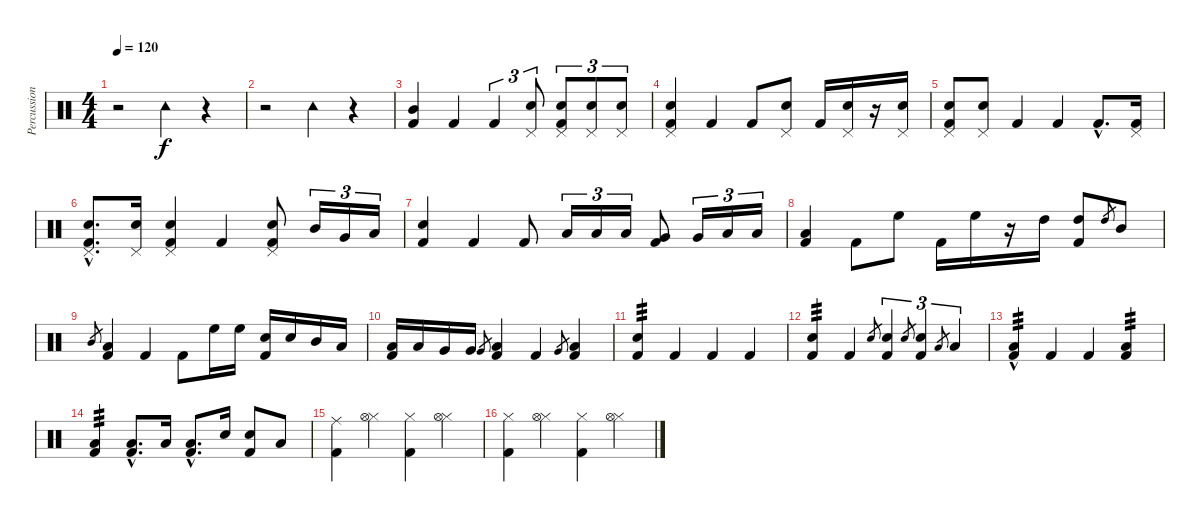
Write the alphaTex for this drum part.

\track ("Percussion" "Percussion") {instrument percussion}
\staff {score}
\articulation defaults
\ts (4 4)
\tempo 120
\clef neutral
\ks c
r.2{dy f} "Tambourine (hit)".4 r.4 |
r.2 "Tambourine (hit)".4 r.4 |
("Kick (hit) 2" "Mid Tom (hit)").4 "Kick (hit) 2".4 "Kick (hit) 2".4{tu (3 2)} ("Snare (hit) 2" "Pedal Hi-Hat (hit)").8{tu (3 2)} ("Kick (hit) 2" "Snare (hit) 2" "Pedal Hi-Hat (hit)").8{tu (3 2)} ("Snare (hit) 2" "Pedal Hi-Hat (hit)").8{tu (3 2)} ("Snare (hit) 2" "Pedal Hi-Hat (hit)").8{tu (3 2)} |
("Kick (hit) 2" "Snare (hit) 2" "Pedal Hi-Hat (hit)").4 "Kick (hit) 2".4 "Kick (hit) 2".8 ("Snare (hit) 2" "Pedal Hi-Hat (hit)").8 "Kick (hit) 2".16 ("Snare (hit) 2" "Pedal Hi-Hat (hit)").16 r.16 ("Snare (hit) 2" "Pedal Hi-Hat (hit)").16 |
("Kick (hit) 2" "Snare (hit) 2" "Pedal Hi-Hat (hit)").8 ("Snare (hit) 2" "Pedal Hi-Hat (hit)").8 "Kick (hit) 2".4 "Kick (hit) 2".4 "Kick (hit) 2"{hac}.8{d} ("Kick (hit) 2" "Pedal Hi-Hat (hit)").16 |
("Kick (hit) 2"{hac} "Snare (hit) 2"{hac} "Pedal Hi-Hat (hit)"{hac}).8{d} ("Snare (hit) 2" "Pedal Hi-Hat (hit)").16 ("Kick (hit) 2" "Snare (hit) 2" "Pedal Hi-Hat (hit)").4 "Kick (hit) 2".4 ("Kick (hit) 2" "Snare (hit) 2" "Pedal Hi-Hat (hit)").8 "Mid Tom (hit)".16{tu (3 2)} "Very Low Tom (hit)".16{tu (3 2)} "Low Floor Tom (hit)".16{tu (3 2)} |
("Kick (hit) 2" "Snare (hit) 2").4 "Kick (hit) 2".4 "Kick (hit) 2".8 "Low Tom (hit)".16{tu (3 2)} "Low Tom (hit)".16{tu (3 2)} "Low Tom (hit)".16{tu (3 2)} ("Kick (hit) 2" "Very Low Tom (hit)").8 "Very Low Tom (hit)".16{tu (3 2)} "Low Floor Tom (hit)".16{tu (3 2)} "Low Floor Tom (hit)".16{tu (3 2)} |
("Kick (hit) 2" "Low Floor Tom (hit)").4 "Kick (hit) 2".8 "High Floor Tom (hit)".8 "Kick (hit) 2".16 "High Floor Tom (hit)".16 r.16 "High Tom (hit)".16 ("Kick (hit) 2" "High Tom (hit)").8 "High Tom (hit)".8{gr} "Mid Tom (hit)".8 |
"Mid Tom (hit)".8{gr} ("Kick (hit) 2" "Low Tom (hit)").4 "Kick (hit) 2".4 "Kick (hit) 2".8 "High Floor Tom (hit)".16 "High Floor Tom (hit)".16 ("Kick (hit) 2" "Snare (hit) 2").16 "Snare (hit) 2".16 "Mid Tom (hit)".16 "Low Tom (hit)".16 |
("Kick (hit) 2" "Low Tom (hit)").16 "Low Tom (hit)".16 "Very Low Tom (hit)".16 "Very Low Tom (hit)".16 "Very Low Tom (hit)".8{gr} ("Kick (hit) 2" "Low Floor Tom (hit)").4 "Kick (hit) 2".4 "Very Low Tom (hit)".8{gr} ("Kick (hit) 2" "Low Floor Tom (hit)").4 |
("Kick (hit) 2" "Snare (hit) 2").4{tp 3} "Kick (hit) 2".4 "Kick (hit) 2".4 "Kick (hit) 2".4 |
("Kick (hit) 2" "Snare (hit) 2").4{tp 3} "Kick (hit) 2".4 "Snare (hit) 2".8{gr} ("Kick (hit) 2" "Snare (hit) 2").4{tu (3 2)} "Snare (hit) 2".8{gr} ("Kick (hit) 2" "Snare (hit) 2").4{tu (3 2)} "Low Floor Tom (hit)".8{gr} "Low Floor Tom (hit)".4{tu (3 2)} |
("Kick (hit) 2" "Low Tom (hit)"{hac}).4{tp 3} "Kick (hit) 2".4 "Kick (hit) 2".4 ("Kick (hit) 2" "Low Tom (hit)").4{tp 3} |
("Kick (hit) 2" "Low Tom (hit)").4{tp 3} ("Kick (hit) 2"{hac} "Low Tom (hit)"{hac}).8{d} "Low Tom (hit)".16 ("Kick (hit) 2"{hac} "Low Tom (hit)"{hac}).8{d} "Snare (hit) 2".16 ("Kick (hit) 2" "Snare (hit) 2").8 "Low Floor Tom (hit)".8 |
("Kick (hit) 2" "Ride (middle)").4 ("Hi-Hat (closed)" "Hi-Hat (open)").4 ("Kick (hit) 2" "Hi-Hat (closed)").4 ("Hi-Hat (closed)" "Hi-Hat (open)").4 |
("Kick (hit) 2" "Hi-Hat (closed)").4 ("Hi-Hat (closed)" "Hi-Hat (open)").4 ("Kick (hit) 2" "Hi-Hat (closed)").4 ("Hi-Hat (closed)" "Hi-Hat (open)").4
